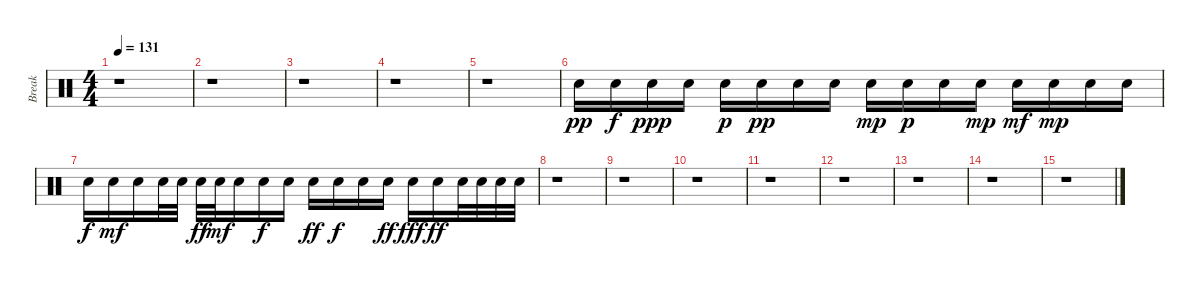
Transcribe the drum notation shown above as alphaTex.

\track ("Break" "Break") {instrument percussion}
\staff {score}
\articulation defaults
\ts (4 4)
\tempo 131
\clef neutral
\ks c
r.1{dy f} |
r.1 |
r.1 |
r.1 |
r.1 |
"Snare (hit) 2".16{dy pp} "Snare (hit) 2".16{dy f} "Snare (hit) 2".16{dy ppp} "Snare (hit) 2".16 "Snare (hit) 2".16{dy p} "Snare (hit) 2".16{dy pp} "Snare (hit) 2".16 "Snare (hit) 2".16 "Snare (hit) 2".16{dy mp} "Snare (hit) 2".16{dy p} "Snare (hit) 2".16 "Snare (hit) 2".16{dy mp} "Snare (hit) 2".16{dy mf} "Snare (hit) 2".16{dy mp} "Snare (hit) 2".16 "Snare (hit) 2".16 |
"Snare (hit) 2".16{dy f} "Snare (hit) 2".16{dy mf} "Snare (hit) 2".16 "Snare (hit) 2".32 "Snare (hit) 2".32 "Snare (hit) 2".32{dy ff} "Snare (hit) 2".32{dy mf} "Snare (hit) 2".16 "Snare (hit) 2".16{dy f} "Snare (hit) 2".16 "Snare (hit) 2".16{dy ff} "Snare (hit) 2".16{dy f} "Snare (hit) 2".16 "Snare (hit) 2".16{dy ff} "Snare (hit) 2".16{dy fff} "Snare (hit) 2".16{dy ff} "Snare (hit) 2".32 "Snare (hit) 2".32 "Snare (hit) 2".32 "Snare (hit) 2".32 |
r.1 |
r.1 |
r.1 |
r.1 |
r.1 |
r.1 |
r.1 |
r.1
